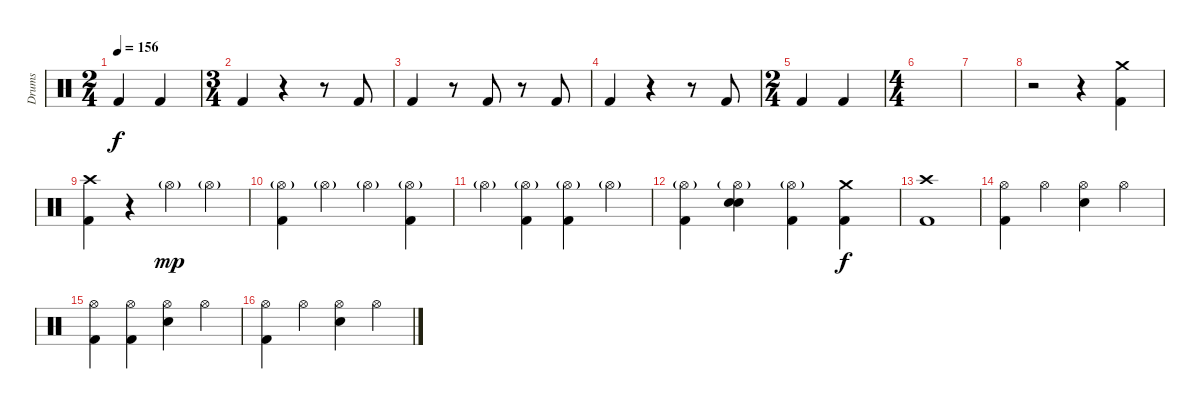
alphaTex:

\track ("Drums" "Drums") {instrument percussion}
\staff {score}
\articulation defaults
\ts (2 4)
\tempo 156
\clef neutral
\ks c "Kick (hit) 2".4{dy f} "Kick (hit) 2".4
|
\ts (3 4)
"Kick (hit) 2".4 r.4 r.8 "Kick (hit) 2".8 |
"Kick (hit) 2".4 r.8 "Kick (hit) 2".8 r.8 "Kick (hit) 2".8 |
"Kick (hit) 2".4 r.4 r.8 "Kick (hit) 2".8 |
\ts (2 4)
"Kick (hit) 2".4 "Kick (hit) 2".4 |
\ts (4 4)
|
|
r.2 r.4 ("Crash medium (hit)" "Kick (hit) 2").4 |
("Crash high (hit)" "Kick (hit) 2").4 r.4 "Hi-Hat (open)"{g}.4{dy mp} "Hi-Hat (open)"{g}.4 |
("Hi-Hat (open)"{g} "Kick (hit) 2").4 "Hi-Hat (open)"{g}.4 "Hi-Hat (open)"{g}.4 ("Hi-Hat (open)"{g} "Kick (hit) 2").4 |
"Hi-Hat (open)"{g}.4 ("Hi-Hat (open)"{g} "Kick (hit) 2").4 ("Hi-Hat (open)"{g} "Kick (hit) 2").4 "Hi-Hat (open)"{g}.4 |
("Hi-Hat (open)"{g} "Kick (hit) 2").4 ("Hi-Hat (open)"{g} "Snare (hit) 2" "Electric Snare (hit)").4 ("Hi-Hat (open)"{g} "Kick (hit) 2").4 ("Crash medium (hit)" "Kick (hit) 2").4{dy f} |
("Crash high (hit)" "Kick (hit) 2").1 |
("Hi-Hat (open)" "Kick (hit) 2").4 "Hi-Hat (open)".4 ("Hi-Hat (open)" "Electric Snare (hit)").4 "Hi-Hat (open)".4 |
("Hi-Hat (open)" "Kick (hit) 2").4 ("Hi-Hat (open)" "Kick (hit) 2").4 ("Hi-Hat (open)" "Electric Snare (hit)").4 "Hi-Hat (open)".4 |
("Hi-Hat (open)" "Kick (hit) 2").4 "Hi-Hat (open)".4 ("Hi-Hat (open)" "Electric Snare (hit)").4 "Hi-Hat (open)".4
